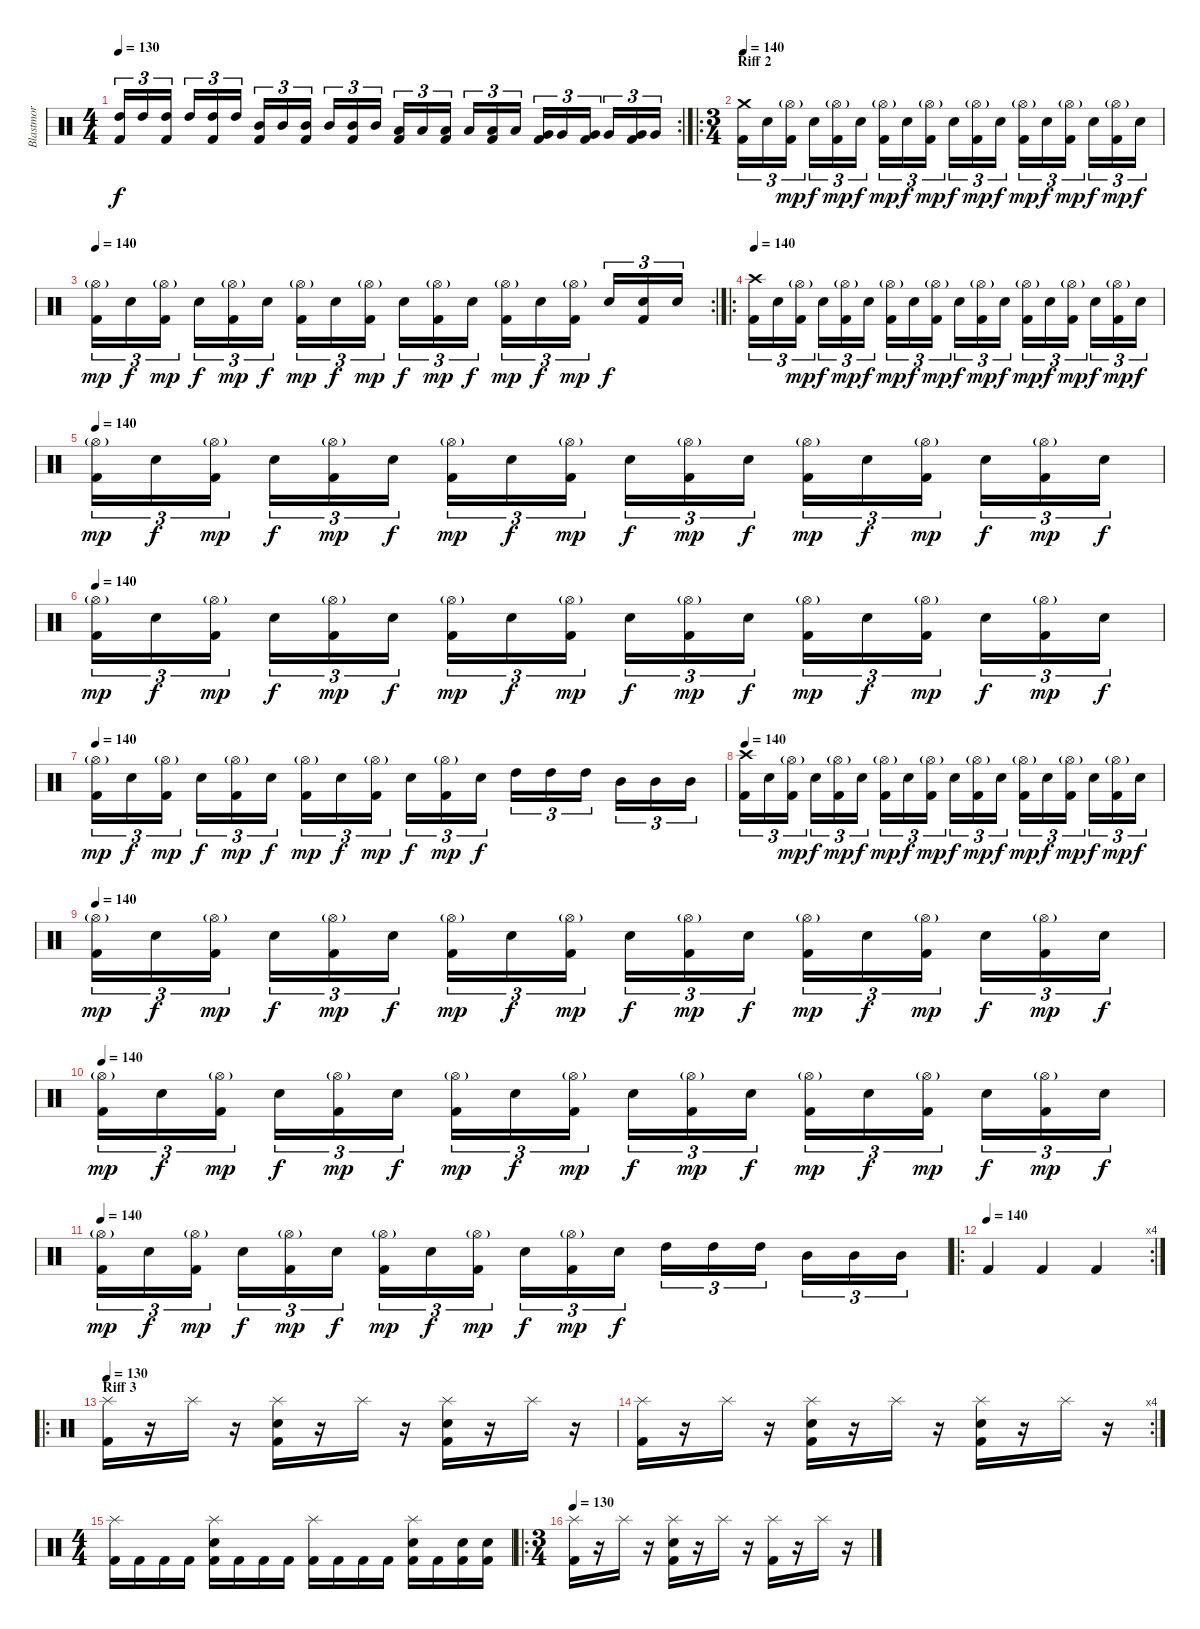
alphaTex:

\track ("Blastmor" "Blastmor") {instrument percussion}
\staff {score}
\articulation defaults
\rc 2
\ts (4 4)
\tempo 130
\clef neutral
\ks c
("High Tom (hit)" "Kick (hit) 2").16{tu (3 2) dy f} "High Tom (hit)".16{tu (3 2)} ("High Tom (hit)" "Kick (hit) 2").16{tu (3 2)} "High Tom (hit)".16{tu (3 2)} ("High Tom (hit)" "Kick (hit) 2").16{tu (3 2)} "High Tom (hit)".16{tu (3 2)} ("Mid Tom (hit)" "Kick (hit) 2").16{tu (3 2)} "Mid Tom (hit)".16{tu (3 2)} ("Mid Tom (hit)" "Kick (hit) 2").16{tu (3 2)} "Mid Tom (hit)".16{tu (3 2)} ("Mid Tom (hit)" "Kick (hit) 2").16{tu (3 2)} "Mid Tom (hit)".16{tu (3 2)} ("Low Tom (hit)" "Kick (hit) 2").16{tu (3 2)} "Low Tom (hit)".16{tu (3 2)} ("Low Tom (hit)" "Kick (hit) 2").16{tu (3 2)} "Low Tom (hit)".16{tu (3 2)} ("Low Tom (hit)" "Kick (hit) 2").16{tu (3 2)} "Low Tom (hit)".16{tu (3 2)} ("Very Low Tom (hit)" "Kick (hit) 2").16{tu (3 2)} "Very Low Tom (hit)".16{tu (3 2)} ("Very Low Tom (hit)" "Kick (hit) 2").16{tu (3 2)} "Very Low Tom (hit)".16{tu (3 2)} ("Very Low Tom (hit)" "Kick (hit) 2").16{tu (3 2)} "Very Low Tom (hit)".16{tu (3 2)} |
\ro
\ts (3 4)
\section ("" "Riff 2")
\tempo 140
("Crash medium (hit)" "Kick (hit) 2").16{tu (3 2)} "Electric Snare (hit)".16{tu (3 2)} ("Hi-Hat (open)"{g} "Kick (hit) 2").16{tu (3 2) dy mp} "Electric Snare (hit)".16{tu (3 2) dy f} ("Hi-Hat (open)"{g} "Kick (hit) 2").16{tu (3 2) dy mp} "Electric Snare (hit)".16{tu (3 2) dy f} ("Hi-Hat (open)"{g} "Kick (hit) 2").16{tu (3 2) dy mp} "Electric Snare (hit)".16{tu (3 2) dy f} ("Hi-Hat (open)"{g} "Kick (hit) 2").16{tu (3 2) dy mp} "Electric Snare (hit)".16{tu (3 2) dy f} ("Hi-Hat (open)"{g} "Kick (hit) 2").16{tu (3 2) dy mp} "Electric Snare (hit)".16{tu (3 2) dy f} ("Hi-Hat (open)"{g} "Kick (hit) 2").16{tu (3 2) dy mp} "Electric Snare (hit)".16{tu (3 2) dy f} ("Hi-Hat (open)"{g} "Kick (hit) 2").16{tu (3 2) dy mp} "Electric Snare (hit)".16{tu (3 2) dy f} ("Hi-Hat (open)"{g} "Kick (hit) 2").16{tu (3 2) dy mp} "Electric Snare (hit)".16{tu (3 2) dy f} |
\rc 2
\tempo 140
("Hi-Hat (open)"{g} "Kick (hit) 2").16{tu (3 2) dy mp} "Electric Snare (hit)".16{tu (3 2) dy f} ("Hi-Hat (open)"{g} "Kick (hit) 2").16{tu (3 2) dy mp} "Electric Snare (hit)".16{tu (3 2) dy f} ("Hi-Hat (open)"{g} "Kick (hit) 2").16{tu (3 2) dy mp} "Electric Snare (hit)".16{tu (3 2) dy f} ("Hi-Hat (open)"{g} "Kick (hit) 2").16{tu (3 2) dy mp} "Electric Snare (hit)".16{tu (3 2) dy f} ("Hi-Hat (open)"{g} "Kick (hit) 2").16{tu (3 2) dy mp} "Electric Snare (hit)".16{tu (3 2) dy f} ("Hi-Hat (open)"{g} "Kick (hit) 2").16{tu (3 2) dy mp} "Electric Snare (hit)".16{tu (3 2) dy f} ("Hi-Hat (open)"{g} "Kick (hit) 2").16{tu (3 2) dy mp} "Electric Snare (hit)".16{tu (3 2) dy f} ("Hi-Hat (open)"{g} "Kick (hit) 2").16{tu (3 2) dy mp} "Electric Snare (hit)".16{tu (3 2) dy f} ("Electric Snare (hit)" "Kick (hit) 2").16{tu (3 2)} "Electric Snare (hit)".16{tu (3 2)} |
\ro
\tempo 140
("Crash high (hit)" "Kick (hit) 2").16{tu (3 2)} "Electric Snare (hit)".16{tu (3 2)} ("Hi-Hat (open)"{g} "Kick (hit) 2").16{tu (3 2) dy mp} "Electric Snare (hit)".16{tu (3 2) dy f} ("Hi-Hat (open)"{g} "Kick (hit) 2").16{tu (3 2) dy mp} "Electric Snare (hit)".16{tu (3 2) dy f} ("Hi-Hat (open)"{g} "Kick (hit) 2").16{tu (3 2) dy mp} "Electric Snare (hit)".16{tu (3 2) dy f} ("Hi-Hat (open)"{g} "Kick (hit) 2").16{tu (3 2) dy mp} "Electric Snare (hit)".16{tu (3 2) dy f} ("Hi-Hat (open)"{g} "Kick (hit) 2").16{tu (3 2) dy mp} "Electric Snare (hit)".16{tu (3 2) dy f} ("Hi-Hat (open)"{g} "Kick (hit) 2").16{tu (3 2) dy mp} "Electric Snare (hit)".16{tu (3 2) dy f} ("Hi-Hat (open)"{g} "Kick (hit) 2").16{tu (3 2) dy mp} "Electric Snare (hit)".16{tu (3 2) dy f} ("Hi-Hat (open)"{g} "Kick (hit) 2").16{tu (3 2) dy mp} "Electric Snare (hit)".16{tu (3 2) dy f} |
\tempo 140
("Hi-Hat (open)"{g} "Kick (hit) 2").16{tu (3 2) dy mp} "Electric Snare (hit)".16{tu (3 2) dy f} ("Hi-Hat (open)"{g} "Kick (hit) 2").16{tu (3 2) dy mp} "Electric Snare (hit)".16{tu (3 2) dy f} ("Hi-Hat (open)"{g} "Kick (hit) 2").16{tu (3 2) dy mp} "Electric Snare (hit)".16{tu (3 2) dy f} ("Hi-Hat (open)"{g} "Kick (hit) 2").16{tu (3 2) dy mp} "Electric Snare (hit)".16{tu (3 2) dy f} ("Hi-Hat (open)"{g} "Kick (hit) 2").16{tu (3 2) dy mp} "Electric Snare (hit)".16{tu (3 2) dy f} ("Hi-Hat (open)"{g} "Kick (hit) 2").16{tu (3 2) dy mp} "Electric Snare (hit)".16{tu (3 2) dy f} ("Hi-Hat (open)"{g} "Kick (hit) 2").16{tu (3 2) dy mp} "Electric Snare (hit)".16{tu (3 2) dy f} ("Hi-Hat (open)"{g} "Kick (hit) 2").16{tu (3 2) dy mp} "Electric Snare (hit)".16{tu (3 2) dy f} ("Hi-Hat (open)"{g} "Kick (hit) 2").16{tu (3 2) dy mp} "Electric Snare (hit)".16{tu (3 2) dy f} |
\tempo 140
("Hi-Hat (open)"{g} "Kick (hit) 2").16{tu (3 2) dy mp} "Electric Snare (hit)".16{tu (3 2) dy f} ("Hi-Hat (open)"{g} "Kick (hit) 2").16{tu (3 2) dy mp} "Electric Snare (hit)".16{tu (3 2) dy f} ("Hi-Hat (open)"{g} "Kick (hit) 2").16{tu (3 2) dy mp} "Electric Snare (hit)".16{tu (3 2) dy f} ("Hi-Hat (open)"{g} "Kick (hit) 2").16{tu (3 2) dy mp} "Electric Snare (hit)".16{tu (3 2) dy f} ("Hi-Hat (open)"{g} "Kick (hit) 2").16{tu (3 2) dy mp} "Electric Snare (hit)".16{tu (3 2) dy f} ("Hi-Hat (open)"{g} "Kick (hit) 2").16{tu (3 2) dy mp} "Electric Snare (hit)".16{tu (3 2) dy f} ("Hi-Hat (open)"{g} "Kick (hit) 2").16{tu (3 2) dy mp} "Electric Snare (hit)".16{tu (3 2) dy f} ("Hi-Hat (open)"{g} "Kick (hit) 2").16{tu (3 2) dy mp} "Electric Snare (hit)".16{tu (3 2) dy f} ("Hi-Hat (open)"{g} "Kick (hit) 2").16{tu (3 2) dy mp} "Electric Snare (hit)".16{tu (3 2) dy f} |
\tempo 140
("Hi-Hat (open)"{g} "Kick (hit) 2").16{tu (3 2) dy mp} "Electric Snare (hit)".16{tu (3 2) dy f} ("Hi-Hat (open)"{g} "Kick (hit) 2").16{tu (3 2) dy mp} "Electric Snare (hit)".16{tu (3 2) dy f} ("Hi-Hat (open)"{g} "Kick (hit) 2").16{tu (3 2) dy mp} "Electric Snare (hit)".16{tu (3 2) dy f} ("Hi-Hat (open)"{g} "Kick (hit) 2").16{tu (3 2) dy mp} "Electric Snare (hit)".16{tu (3 2) dy f} ("Hi-Hat (open)"{g} "Kick (hit) 2").16{tu (3 2) dy mp} "Electric Snare (hit)".16{tu (3 2) dy f} ("Hi-Hat (open)"{g} "Kick (hit) 2").16{tu (3 2) dy mp} "Electric Snare (hit)".16{tu (3 2) dy f} "High Tom (hit)".16{tu (3 2)} "High Tom (hit)".16{tu (3 2)} "High Tom (hit)".16{tu (3 2)} "Mid Tom (hit)".16{tu (3 2)} "Mid Tom (hit)".16{tu (3 2)} "Mid Tom (hit)".16{tu (3 2)} |
\tempo 140
("Crash high (hit)" "Kick (hit) 2").16{tu (3 2)} "Electric Snare (hit)".16{tu (3 2)} ("Hi-Hat (open)"{g} "Kick (hit) 2").16{tu (3 2) dy mp} "Electric Snare (hit)".16{tu (3 2) dy f} ("Hi-Hat (open)"{g} "Kick (hit) 2").16{tu (3 2) dy mp} "Electric Snare (hit)".16{tu (3 2) dy f} ("Hi-Hat (open)"{g} "Kick (hit) 2").16{tu (3 2) dy mp} "Electric Snare (hit)".16{tu (3 2) dy f} ("Hi-Hat (open)"{g} "Kick (hit) 2").16{tu (3 2) dy mp} "Electric Snare (hit)".16{tu (3 2) dy f} ("Hi-Hat (open)"{g} "Kick (hit) 2").16{tu (3 2) dy mp} "Electric Snare (hit)".16{tu (3 2) dy f} ("Hi-Hat (open)"{g} "Kick (hit) 2").16{tu (3 2) dy mp} "Electric Snare (hit)".16{tu (3 2) dy f} ("Hi-Hat (open)"{g} "Kick (hit) 2").16{tu (3 2) dy mp} "Electric Snare (hit)".16{tu (3 2) dy f} ("Hi-Hat (open)"{g} "Kick (hit) 2").16{tu (3 2) dy mp} "Electric Snare (hit)".16{tu (3 2) dy f} |
\tempo 140
("Hi-Hat (open)"{g} "Kick (hit) 2").16{tu (3 2) dy mp} "Electric Snare (hit)".16{tu (3 2) dy f} ("Hi-Hat (open)"{g} "Kick (hit) 2").16{tu (3 2) dy mp} "Electric Snare (hit)".16{tu (3 2) dy f} ("Hi-Hat (open)"{g} "Kick (hit) 2").16{tu (3 2) dy mp} "Electric Snare (hit)".16{tu (3 2) dy f} ("Hi-Hat (open)"{g} "Kick (hit) 2").16{tu (3 2) dy mp} "Electric Snare (hit)".16{tu (3 2) dy f} ("Hi-Hat (open)"{g} "Kick (hit) 2").16{tu (3 2) dy mp} "Electric Snare (hit)".16{tu (3 2) dy f} ("Hi-Hat (open)"{g} "Kick (hit) 2").16{tu (3 2) dy mp} "Electric Snare (hit)".16{tu (3 2) dy f} ("Hi-Hat (open)"{g} "Kick (hit) 2").16{tu (3 2) dy mp} "Electric Snare (hit)".16{tu (3 2) dy f} ("Hi-Hat (open)"{g} "Kick (hit) 2").16{tu (3 2) dy mp} "Electric Snare (hit)".16{tu (3 2) dy f} ("Hi-Hat (open)"{g} "Kick (hit) 2").16{tu (3 2) dy mp} "Electric Snare (hit)".16{tu (3 2) dy f} |
\tempo 140
("Hi-Hat (open)"{g} "Kick (hit) 2").16{tu (3 2) dy mp} "Electric Snare (hit)".16{tu (3 2) dy f} ("Hi-Hat (open)"{g} "Kick (hit) 2").16{tu (3 2) dy mp} "Electric Snare (hit)".16{tu (3 2) dy f} ("Hi-Hat (open)"{g} "Kick (hit) 2").16{tu (3 2) dy mp} "Electric Snare (hit)".16{tu (3 2) dy f} ("Hi-Hat (open)"{g} "Kick (hit) 2").16{tu (3 2) dy mp} "Electric Snare (hit)".16{tu (3 2) dy f} ("Hi-Hat (open)"{g} "Kick (hit) 2").16{tu (3 2) dy mp} "Electric Snare (hit)".16{tu (3 2) dy f} ("Hi-Hat (open)"{g} "Kick (hit) 2").16{tu (3 2) dy mp} "Electric Snare (hit)".16{tu (3 2) dy f} ("Hi-Hat (open)"{g} "Kick (hit) 2").16{tu (3 2) dy mp} "Electric Snare (hit)".16{tu (3 2) dy f} ("Hi-Hat (open)"{g} "Kick (hit) 2").16{tu (3 2) dy mp} "Electric Snare (hit)".16{tu (3 2) dy f} ("Hi-Hat (open)"{g} "Kick (hit) 2").16{tu (3 2) dy mp} "Electric Snare (hit)".16{tu (3 2) dy f} |
\tempo 140
("Hi-Hat (open)"{g} "Kick (hit) 2").16{tu (3 2) dy mp} "Electric Snare (hit)".16{tu (3 2) dy f} ("Hi-Hat (open)"{g} "Kick (hit) 2").16{tu (3 2) dy mp} "Electric Snare (hit)".16{tu (3 2) dy f} ("Hi-Hat (open)"{g} "Kick (hit) 2").16{tu (3 2) dy mp} "Electric Snare (hit)".16{tu (3 2) dy f} ("Hi-Hat (open)"{g} "Kick (hit) 2").16{tu (3 2) dy mp} "Electric Snare (hit)".16{tu (3 2) dy f} ("Hi-Hat (open)"{g} "Kick (hit) 2").16{tu (3 2) dy mp} "Electric Snare (hit)".16{tu (3 2) dy f} ("Hi-Hat (open)"{g} "Kick (hit) 2").16{tu (3 2) dy mp} "Electric Snare (hit)".16{tu (3 2) dy f} "High Tom (hit)".16{tu (3 2)} "High Tom (hit)".16{tu (3 2)} "High Tom (hit)".16{tu (3 2)} "Mid Tom (hit)".16{tu (3 2)} "Mid Tom (hit)".16{tu (3 2)} "Mid Tom (hit)".16{tu (3 2)} |
\ro
\rc 4
\tempo (140)
"Kick (hit) 2".4 "Kick (hit) 2".4 "Kick (hit) 2".4 |
\ro
\section ("" "Riff 3")
\tempo 130
("Splash (hit)" "Kick (hit) 2").16 r.16 "Splash (hit)".16 r.16 ("Splash (hit)" "Electric Snare (hit)" "Kick (hit) 2").16 r.16 "Splash (hit)".16 r.16 ("Splash (hit)" "Electric Snare (hit)" "Kick (hit) 2").16 r.16 "Splash (hit)".16 r.16 |
\rc 4
("Splash (hit)" "Kick (hit) 2").16 r.16 "Splash (hit)".16 r.16 ("Splash (hit)" "Electric Snare (hit)" "Kick (hit) 2").16 r.16 "Splash (hit)".16 r.16 ("Splash (hit)" "Electric Snare (hit)" "Kick (hit) 2").16 r.16 "Splash (hit)".16 r.16 |
\ts (4 4)
\section ("" "")
("Splash (hit)" "Kick (hit) 2").16 "Kick (hit) 2".16 "Kick (hit) 2".16 "Kick (hit) 2".16 ("Splash (hit)" "Electric Snare (hit)" "Kick (hit) 2").16 "Kick (hit) 2".16 "Kick (hit) 2".16 "Kick (hit) 2".16 ("Splash (hit)" "Kick (hit) 2").16 "Kick (hit) 2".16 "Kick (hit) 2".16 "Kick (hit) 2".16 ("Splash (hit)" "Electric Snare (hit)" "Kick (hit) 2").16 "Kick (hit) 2".16 ("Electric Snare (hit)" "Kick (hit) 2").16 ("Electric Snare (hit)" "Kick (hit) 2").16 |
\ro
\ts (3 4)
\tempo 130
("Splash (hit)" "Kick (hit) 2").16 r.16 "Splash (hit)".16 r.16 ("Splash (hit)" "Electric Snare (hit)" "Kick (hit) 2").16 r.16 "Splash (hit)".16 r.16 ("Splash (hit)" "Kick (hit) 2").16 r.16 "Splash (hit)".16 r.16
